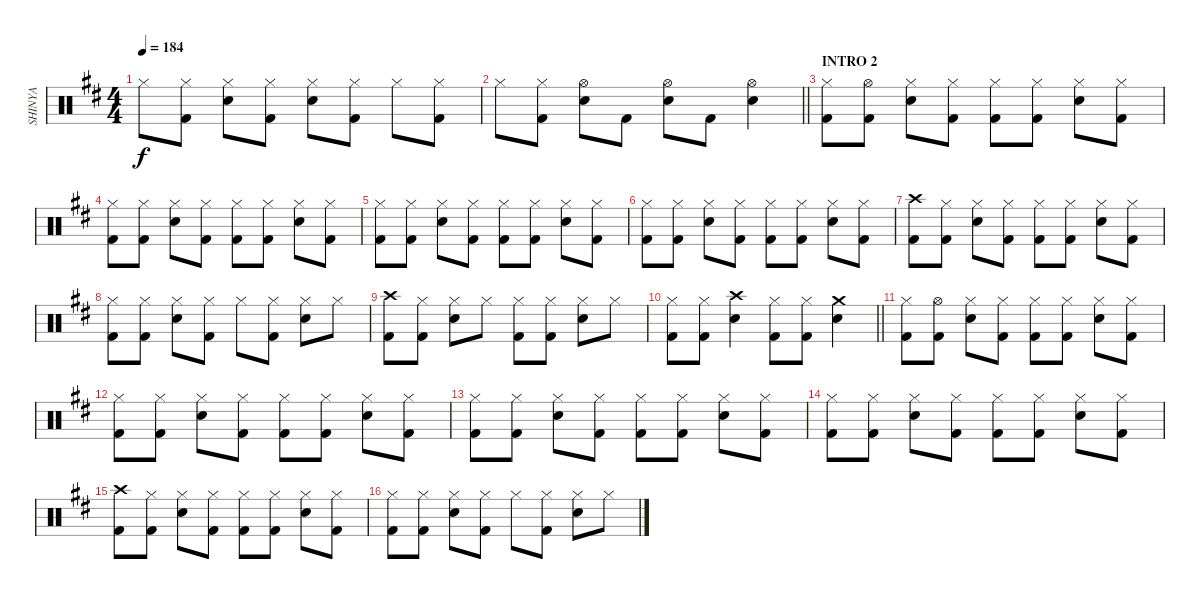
\track ("SHINYA" "SHINYA") {instrument percussion}
\staff {score}
\articulation defaults
\ts (4 4)
\tempo 184
\clef neutral
\ks bminor "Hi-Hat (closed)".8{dy f}
("Hi-Hat (closed)" "Kick (hit) 2").8 ("Hi-Hat (closed)" "Snare (hit) 2").8 ("Hi-Hat (closed)" "Kick (hit) 2").8 ("Hi-Hat (closed)" "Snare (hit) 2").8 ("Hi-Hat (closed)" "Kick (hit) 2").8 "Hi-Hat (closed)".8 ("Hi-Hat (closed)" "Kick (hit) 2").8 |
\barLineRight lightlight "Hi-Hat (closed)".8
("Hi-Hat (closed)" "Kick (hit) 2").8 ("Hi-Hat (open)" "Snare (hit) 2").8 "Kick (hit) 2".8 ("Hi-Hat (open)" "Snare (hit) 2").8 "Kick (hit) 2".8 ("Hi-Hat (open)" "Snare (hit) 2").4 |
\section ("" "INTRO 2")
("Hi-Hat (closed)" "Kick (hit) 2").8 ("Hi-Hat (open)" "Kick (hit) 2").8 ("Hi-Hat (closed)" "Snare (hit) 2").8 ("Hi-Hat (closed)" "Kick (hit) 2").8 ("Hi-Hat (closed)" "Kick (hit) 2").8 ("Hi-Hat (closed)" "Kick (hit) 2").8 ("Hi-Hat (closed)" "Snare (hit) 2").8 ("Hi-Hat (closed)" "Kick (hit) 2").8 |
("Hi-Hat (closed)" "Kick (hit) 2").8 ("Hi-Hat (closed)" "Kick (hit) 2").8 ("Hi-Hat (closed)" "Snare (hit) 2").8 ("Hi-Hat (closed)" "Kick (hit) 2").8 ("Hi-Hat (closed)" "Kick (hit) 2").8 ("Hi-Hat (closed)" "Kick (hit) 2").8 ("Hi-Hat (closed)" "Snare (hit) 2").8 ("Hi-Hat (closed)" "Kick (hit) 2").8 |
("Hi-Hat (closed)" "Kick (hit) 2").8 ("Hi-Hat (closed)" "Kick (hit) 2").8 ("Hi-Hat (closed)" "Snare (hit) 2").8 ("Hi-Hat (closed)" "Kick (hit) 2").8 ("Hi-Hat (closed)" "Kick (hit) 2").8 ("Hi-Hat (closed)" "Kick (hit) 2").8 ("Hi-Hat (closed)" "Snare (hit) 2").8 ("Hi-Hat (closed)" "Kick (hit) 2").8 |
("Hi-Hat (closed)" "Kick (hit) 2").8 ("Hi-Hat (closed)" "Kick (hit) 2").8 ("Hi-Hat (closed)" "Snare (hit) 2").8 ("Hi-Hat (closed)" "Kick (hit) 2").8 ("Hi-Hat (closed)" "Kick (hit) 2").8 ("Hi-Hat (closed)" "Kick (hit) 2").8 ("Hi-Hat (closed)" "Snare (hit) 2").8 ("Hi-Hat (closed)" "Kick (hit) 2").8 |
("Crash high (hit)" "Kick (hit) 2").8 ("Hi-Hat (closed)" "Kick (hit) 2").8 ("Hi-Hat (closed)" "Snare (hit) 2").8 ("Hi-Hat (closed)" "Kick (hit) 2").8 ("Hi-Hat (closed)" "Kick (hit) 2").8 ("Hi-Hat (closed)" "Kick (hit) 2").8 ("Hi-Hat (closed)" "Snare (hit) 2").8 ("Hi-Hat (closed)" "Kick (hit) 2").8 |
("Hi-Hat (closed)" "Kick (hit) 2").8 ("Hi-Hat (closed)" "Kick (hit) 2").8 ("Hi-Hat (closed)" "Snare (hit) 2").8 ("Hi-Hat (closed)" "Kick (hit) 2").8 "Hi-Hat (closed)".8 ("Hi-Hat (closed)" "Kick (hit) 2").8 ("Hi-Hat (closed)" "Snare (hit) 2").8 "Hi-Hat (closed)".8 |
("Crash high (hit)" "Kick (hit) 2").8 ("Hi-Hat (closed)" "Kick (hit) 2").8 ("Hi-Hat (closed)" "Snare (hit) 2").8 "Hi-Hat (closed)".8 ("Hi-Hat (closed)" "Kick (hit) 2").8 ("Hi-Hat (closed)" "Kick (hit) 2").8 ("Hi-Hat (closed)" "Snare (hit) 2").8 "Hi-Hat (closed)".8 |
\barLineRight lightlight
("Hi-Hat (closed)" "Kick (hit) 2").8 ("Hi-Hat (closed)" "Kick (hit) 2").8 ("Crash high (hit)" "Snare (hit) 2").4 ("Hi-Hat (closed)" "Kick (hit) 2").8 ("Hi-Hat (closed)" "Kick (hit) 2").8 ("Crash medium (hit)" "Snare (hit) 2").4 |
("Hi-Hat (closed)" "Kick (hit) 2").8 ("Hi-Hat (open)" "Kick (hit) 2").8 ("Hi-Hat (closed)" "Snare (hit) 2").8 ("Hi-Hat (closed)" "Kick (hit) 2").8 ("Hi-Hat (closed)" "Kick (hit) 2").8 ("Hi-Hat (closed)" "Kick (hit) 2").8 ("Hi-Hat (closed)" "Snare (hit) 2").8 ("Hi-Hat (closed)" "Kick (hit) 2").8 |
("Hi-Hat (closed)" "Kick (hit) 2").8 ("Hi-Hat (closed)" "Kick (hit) 2").8 ("Hi-Hat (closed)" "Snare (hit) 2").8 ("Hi-Hat (closed)" "Kick (hit) 2").8 ("Hi-Hat (closed)" "Kick (hit) 2").8 ("Hi-Hat (closed)" "Kick (hit) 2").8 ("Hi-Hat (closed)" "Snare (hit) 2").8 ("Hi-Hat (closed)" "Kick (hit) 2").8 |
("Hi-Hat (closed)" "Kick (hit) 2").8 ("Hi-Hat (closed)" "Kick (hit) 2").8 ("Hi-Hat (closed)" "Snare (hit) 2").8 ("Hi-Hat (closed)" "Kick (hit) 2").8 ("Hi-Hat (closed)" "Kick (hit) 2").8 ("Hi-Hat (closed)" "Kick (hit) 2").8 ("Hi-Hat (closed)" "Snare (hit) 2").8 ("Hi-Hat (closed)" "Kick (hit) 2").8 |
("Hi-Hat (closed)" "Kick (hit) 2").8 ("Hi-Hat (closed)" "Kick (hit) 2").8 ("Hi-Hat (closed)" "Snare (hit) 2").8 ("Hi-Hat (closed)" "Kick (hit) 2").8 ("Hi-Hat (closed)" "Kick (hit) 2").8 ("Hi-Hat (closed)" "Kick (hit) 2").8 ("Hi-Hat (closed)" "Snare (hit) 2").8 ("Hi-Hat (closed)" "Kick (hit) 2").8 |
("Crash high (hit)" "Kick (hit) 2").8 ("Hi-Hat (closed)" "Kick (hit) 2").8 ("Hi-Hat (closed)" "Snare (hit) 2").8 ("Hi-Hat (closed)" "Kick (hit) 2").8 ("Hi-Hat (closed)" "Kick (hit) 2").8 ("Hi-Hat (closed)" "Kick (hit) 2").8 ("Hi-Hat (closed)" "Snare (hit) 2").8 ("Hi-Hat (closed)" "Kick (hit) 2").8 |
("Hi-Hat (closed)" "Kick (hit) 2").8 ("Hi-Hat (closed)" "Kick (hit) 2").8 ("Hi-Hat (closed)" "Snare (hit) 2").8 ("Hi-Hat (closed)" "Kick (hit) 2").8 "Hi-Hat (closed)".8 ("Hi-Hat (closed)" "Kick (hit) 2").8 ("Hi-Hat (closed)" "Snare (hit) 2").8 "Hi-Hat (closed)".8
